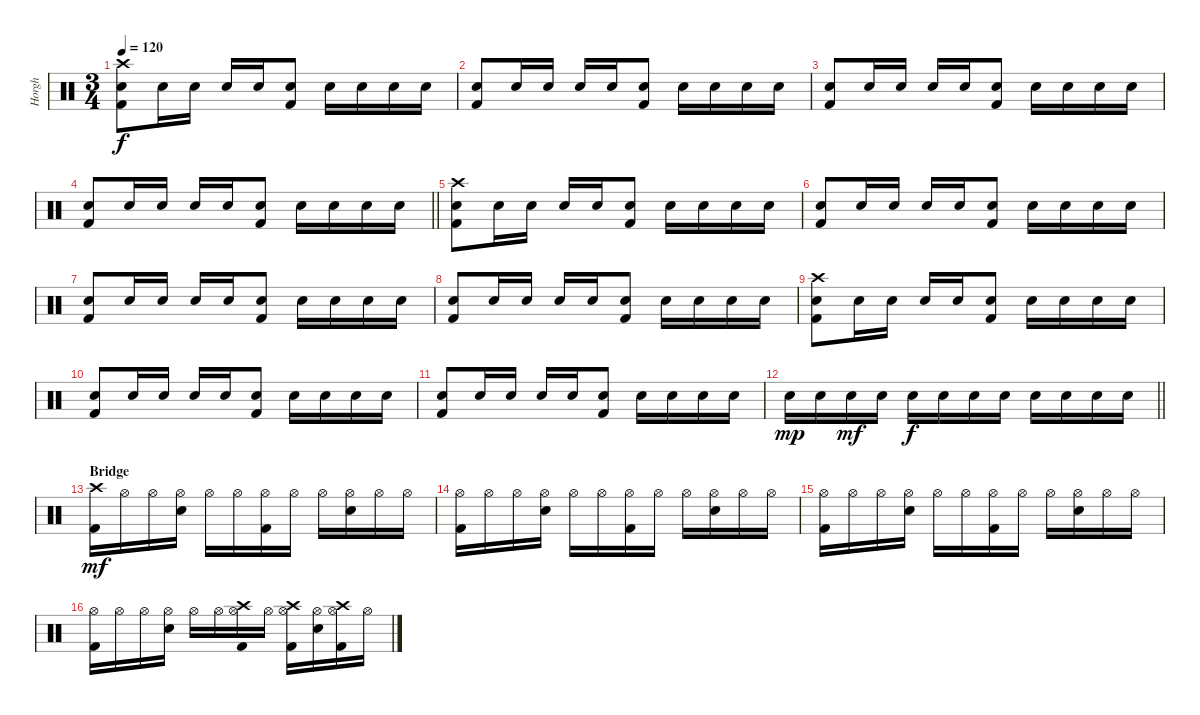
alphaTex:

\track ("Horgh" "Horgh") {instrument percussion}
\staff {score}
\articulation defaults
\ts (3 4)
\tempo 120
\clef neutral
\ks c
("Crash high (hit)" "Snare (hit) 2" "Kick (hit) 2").8{dy f} "Snare (hit) 2".16 "Snare (hit) 2".16 "Snare (hit) 2".16 "Snare (hit) 2".16 ("Snare (hit) 2" "Kick (hit) 2").8 "Snare (hit) 2".16 "Snare (hit) 2".16 "Snare (hit) 2".16 "Snare (hit) 2".16 |
("Snare (hit) 2" "Kick (hit) 2").8 "Snare (hit) 2".16 "Snare (hit) 2".16 "Snare (hit) 2".16 "Snare (hit) 2".16 ("Snare (hit) 2" "Kick (hit) 2").8 "Snare (hit) 2".16 "Snare (hit) 2".16 "Snare (hit) 2".16 "Snare (hit) 2".16 |
("Snare (hit) 2" "Kick (hit) 2").8 "Snare (hit) 2".16 "Snare (hit) 2".16 "Snare (hit) 2".16 "Snare (hit) 2".16 ("Snare (hit) 2" "Kick (hit) 2").8 "Snare (hit) 2".16 "Snare (hit) 2".16 "Snare (hit) 2".16 "Snare (hit) 2".16 |
\barLineRight lightlight
("Snare (hit) 2" "Kick (hit) 2").8 "Snare (hit) 2".16 "Snare (hit) 2".16 "Snare (hit) 2".16 "Snare (hit) 2".16 ("Snare (hit) 2" "Kick (hit) 2").8 "Snare (hit) 2".16 "Snare (hit) 2".16 "Snare (hit) 2".16 "Snare (hit) 2".16 |
("Crash high (hit)" "Snare (hit) 2" "Kick (hit) 2").8 "Snare (hit) 2".16 "Snare (hit) 2".16 "Snare (hit) 2".16 "Snare (hit) 2".16 ("Snare (hit) 2" "Kick (hit) 2").8 "Snare (hit) 2".16 "Snare (hit) 2".16 "Snare (hit) 2".16 "Snare (hit) 2".16 |
("Snare (hit) 2" "Kick (hit) 2").8 "Snare (hit) 2".16 "Snare (hit) 2".16 "Snare (hit) 2".16 "Snare (hit) 2".16 ("Snare (hit) 2" "Kick (hit) 2").8 "Snare (hit) 2".16 "Snare (hit) 2".16 "Snare (hit) 2".16 "Snare (hit) 2".16 |
("Snare (hit) 2" "Kick (hit) 2").8 "Snare (hit) 2".16 "Snare (hit) 2".16 "Snare (hit) 2".16 "Snare (hit) 2".16 ("Snare (hit) 2" "Kick (hit) 2").8 "Snare (hit) 2".16 "Snare (hit) 2".16 "Snare (hit) 2".16 "Snare (hit) 2".16 |
("Snare (hit) 2" "Kick (hit) 2").8 "Snare (hit) 2".16 "Snare (hit) 2".16 "Snare (hit) 2".16 "Snare (hit) 2".16 ("Snare (hit) 2" "Kick (hit) 2").8 "Snare (hit) 2".16 "Snare (hit) 2".16 "Snare (hit) 2".16 "Snare (hit) 2".16 |
("Crash high (hit)" "Snare (hit) 2" "Kick (hit) 2").8 "Snare (hit) 2".16 "Snare (hit) 2".16 "Snare (hit) 2".16 "Snare (hit) 2".16 ("Snare (hit) 2" "Kick (hit) 2").8 "Snare (hit) 2".16 "Snare (hit) 2".16 "Snare (hit) 2".16 "Snare (hit) 2".16 |
("Snare (hit) 2" "Kick (hit) 2").8 "Snare (hit) 2".16 "Snare (hit) 2".16 "Snare (hit) 2".16 "Snare (hit) 2".16 ("Snare (hit) 2" "Kick (hit) 2").8 "Snare (hit) 2".16 "Snare (hit) 2".16 "Snare (hit) 2".16 "Snare (hit) 2".16 |
("Snare (hit) 2" "Kick (hit) 2").8 "Snare (hit) 2".16 "Snare (hit) 2".16 "Snare (hit) 2".16 "Snare (hit) 2".16 ("Snare (hit) 2" "Kick (hit) 2").8 "Snare (hit) 2".16 "Snare (hit) 2".16 "Snare (hit) 2".16 "Snare (hit) 2".16 |
\barLineRight lightlight "Snare (hit) 2".16{dy mp} "Snare (hit) 2".16 "Snare (hit) 2".16{dy mf} "Snare (hit) 2".16 "Snare (hit) 2".16{dy f} "Snare (hit) 2".16 "Snare (hit) 2".16 "Snare (hit) 2".16 "Snare (hit) 2".16 "Snare (hit) 2".16 "Snare (hit) 2".16 "Snare (hit) 2".16
|
\section ("" "Bridge")
("Crash high (hit)" "Kick (hit) 2").16{dy mf} "Hi-Hat (open)".16 "Hi-Hat (open)".16 ("Snare (hit) 2" "Hi-Hat (open)").16 "Hi-Hat (open)".16 "Hi-Hat (open)".16 ("Hi-Hat (open)" "Kick (hit) 2").16 "Hi-Hat (open)".16 "Hi-Hat (open)".16 ("Snare (hit) 2" "Hi-Hat (open)").16 "Hi-Hat (open)".16 "Hi-Hat (open)".16 |
("Hi-Hat (open)" "Kick (hit) 2").16 "Hi-Hat (open)".16 "Hi-Hat (open)".16 ("Snare (hit) 2" "Hi-Hat (open)").16 "Hi-Hat (open)".16 "Hi-Hat (open)".16 ("Hi-Hat (open)" "Kick (hit) 2").16 "Hi-Hat (open)".16 "Hi-Hat (open)".16 ("Snare (hit) 2" "Hi-Hat (open)").16 "Hi-Hat (open)".16 "Hi-Hat (open)".16 |
("Hi-Hat (open)" "Kick (hit) 2").16 "Hi-Hat (open)".16 "Hi-Hat (open)".16 ("Snare (hit) 2" "Hi-Hat (open)").16 "Hi-Hat (open)".16 "Hi-Hat (open)".16 ("Hi-Hat (open)" "Kick (hit) 2").16 "Hi-Hat (open)".16 "Hi-Hat (open)".16 ("Snare (hit) 2" "Hi-Hat (open)").16 "Hi-Hat (open)".16 "Hi-Hat (open)".16 |
("Hi-Hat (open)" "Kick (hit) 2").16 "Hi-Hat (open)".16 "Hi-Hat (open)".16 ("Snare (hit) 2" "Hi-Hat (open)").16 "Hi-Hat (open)".16 "Hi-Hat (open)".16 ("Crash high (hit)" "Hi-Hat (open)" "Kick (hit) 2").16 "Hi-Hat (open)".16 ("Crash high (hit)" "Hi-Hat (open)" "Kick (hit) 2").16 ("Snare (hit) 2" "Hi-Hat (open)").16 ("Crash high (hit)" "Hi-Hat (open)" "Kick (hit) 2").16 "Hi-Hat (open)".16
